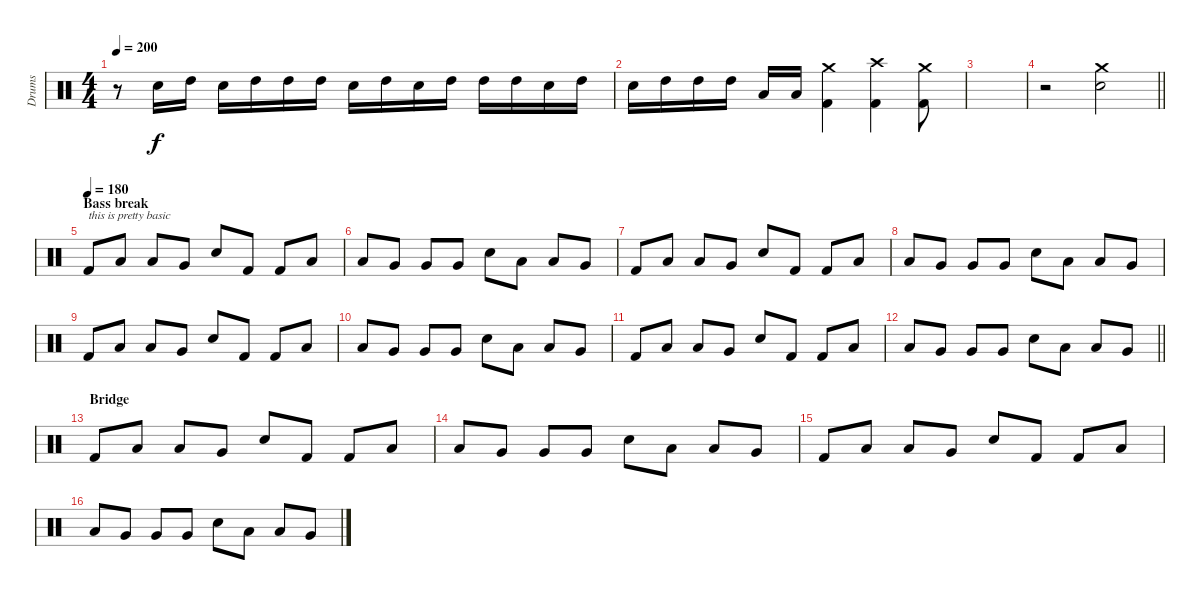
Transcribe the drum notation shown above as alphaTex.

\track ("Drums" "Drums") {instrument percussion}
\staff {score}
\articulation defaults
\ts (4 4)
\tempo 200
\clef neutral
\ks c
r.8{dy f} "Electric Snare (hit)".16 "High Tom (hit)".16 "Electric Snare (hit)".16 "High Tom (hit)".16 "High Tom (hit)".16 "High Tom (hit)".16 "Electric Snare (hit)".16 "High Tom (hit)".16 "Electric Snare (hit)".16 "High Tom (hit)".16 "High Tom (hit)".16 "High Tom (hit)".16 "Electric Snare (hit)".16 "High Tom (hit)".16 |
"Electric Snare (hit)".16 "High Tom (hit)".16 "High Tom (hit)".16 "High Tom (hit)".16 "Low Tom (hit)".16 "Low Tom (hit)".16 ("Crash medium (hit)" "Kick (hit) 2").4 ("Crash high (hit)" "Kick (hit) 2").4 ("Crash medium (hit)" "Kick (hit) 2").8 |
|
\barLineRight lightlight
r.2 ("Crash medium (hit)" "Electric Snare (hit)").2 |
\section ("" "Bass break")
\tempo (180)
"Kick (hit) 2".8{txt "this is pretty basic"} "Low Tom (hit)".8 "Low Tom (hit)".8 "Very Low Tom (hit)".8 "Electric Snare (hit)".8 "Kick (hit) 2".8 "Kick (hit) 2".8 "Low Tom (hit)".8 |
"Low Tom (hit)".8 "Very Low Tom (hit)".8 "Very Low Tom (hit)".8 "Very Low Tom (hit)".8 "Electric Snare (hit)".8 "Low Tom (hit)".8 "Low Tom (hit)".8 "Very Low Tom (hit)".8 |
"Kick (hit) 2".8 "Low Tom (hit)".8 "Low Tom (hit)".8 "Very Low Tom (hit)".8 "Electric Snare (hit)".8 "Kick (hit) 2".8 "Kick (hit) 2".8 "Low Tom (hit)".8 |
"Low Tom (hit)".8 "Very Low Tom (hit)".8 "Very Low Tom (hit)".8 "Very Low Tom (hit)".8 "Electric Snare (hit)".8 "Low Tom (hit)".8 "Low Tom (hit)".8 "Very Low Tom (hit)".8 |
"Kick (hit) 2".8 "Low Tom (hit)".8 "Low Tom (hit)".8 "Very Low Tom (hit)".8 "Electric Snare (hit)".8 "Kick (hit) 2".8 "Kick (hit) 2".8 "Low Tom (hit)".8 |
"Low Tom (hit)".8 "Very Low Tom (hit)".8 "Very Low Tom (hit)".8 "Very Low Tom (hit)".8 "Electric Snare (hit)".8 "Low Tom (hit)".8 "Low Tom (hit)".8 "Very Low Tom (hit)".8 |
"Kick (hit) 2".8 "Low Tom (hit)".8 "Low Tom (hit)".8 "Very Low Tom (hit)".8 "Electric Snare (hit)".8 "Kick (hit) 2".8 "Kick (hit) 2".8 "Low Tom (hit)".8 |
\barLineRight lightlight "Low Tom (hit)".8 "Very Low Tom (hit)".8 "Very Low Tom (hit)".8 "Very Low Tom (hit)".8 "Electric Snare (hit)".8 "Low Tom (hit)".8 "Low Tom (hit)".8 "Very Low Tom (hit)".8
|
\section ("" "Bridge")
"Kick (hit) 2".8 "Low Tom (hit)".8 "Low Tom (hit)".8 "Very Low Tom (hit)".8 "Electric Snare (hit)".8 "Kick (hit) 2".8 "Kick (hit) 2".8 "Low Tom (hit)".8 |
"Low Tom (hit)".8 "Very Low Tom (hit)".8 "Very Low Tom (hit)".8 "Very Low Tom (hit)".8 "Electric Snare (hit)".8 "Low Tom (hit)".8 "Low Tom (hit)".8 "Very Low Tom (hit)".8 |
"Kick (hit) 2".8 "Low Tom (hit)".8 "Low Tom (hit)".8 "Very Low Tom (hit)".8 "Electric Snare (hit)".8 "Kick (hit) 2".8 "Kick (hit) 2".8 "Low Tom (hit)".8 |
"Low Tom (hit)".8 "Very Low Tom (hit)".8 "Very Low Tom (hit)".8 "Very Low Tom (hit)".8 "Electric Snare (hit)".8 "Low Tom (hit)".8 "Low Tom (hit)".8 "Very Low Tom (hit)".8
